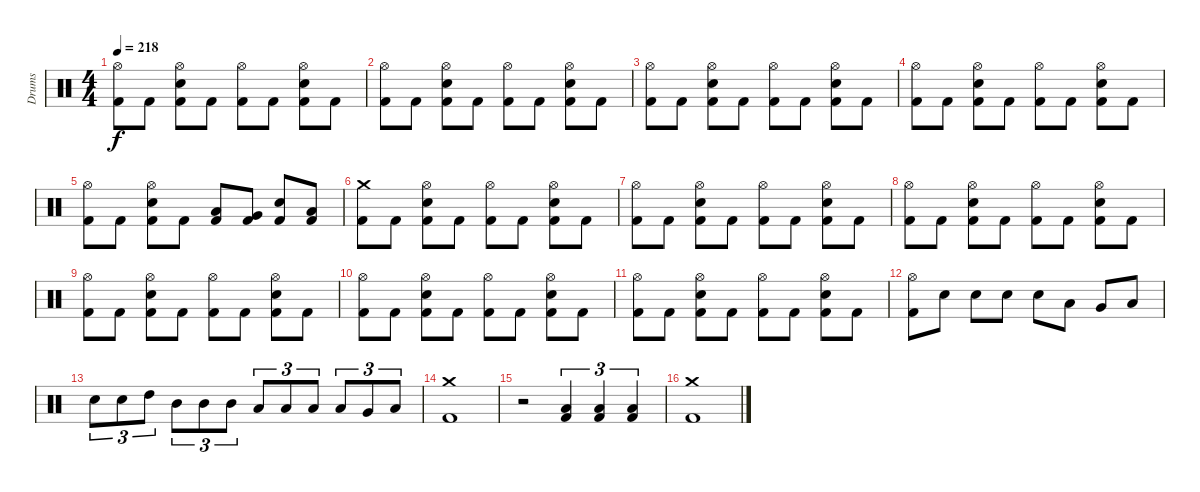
\track ("Drums" "Drums") {instrument percussion}
\staff {score}
\articulation defaults
\ts (4 4)
\tempo 218
\clef neutral
\ks c
("Hi-Hat (open)" "Kick (hit) 2").8{dy f} "Kick (hit) 2".8 ("Hi-Hat (open)" "Snare (hit) 2" "Kick (hit) 2").8 "Kick (hit) 2".8 ("Hi-Hat (open)" "Kick (hit) 2").8 "Kick (hit) 2".8 ("Hi-Hat (open)" "Snare (hit) 2" "Kick (hit) 2").8 "Kick (hit) 2".8 |
("Hi-Hat (open)" "Kick (hit) 2").8 "Kick (hit) 2".8 ("Hi-Hat (open)" "Snare (hit) 2" "Kick (hit) 2").8 "Kick (hit) 2".8 ("Hi-Hat (open)" "Kick (hit) 2").8 "Kick (hit) 2".8 ("Hi-Hat (open)" "Snare (hit) 2" "Kick (hit) 2").8 "Kick (hit) 2".8 |
("Hi-Hat (open)" "Kick (hit) 2").8 "Kick (hit) 2".8 ("Hi-Hat (open)" "Snare (hit) 2" "Kick (hit) 2").8 "Kick (hit) 2".8 ("Hi-Hat (open)" "Kick (hit) 2").8 "Kick (hit) 2".8 ("Hi-Hat (open)" "Snare (hit) 2" "Kick (hit) 2").8 "Kick (hit) 2".8 |
("Hi-Hat (open)" "Kick (hit) 2").8 "Kick (hit) 2".8 ("Hi-Hat (open)" "Snare (hit) 2" "Kick (hit) 2").8 "Kick (hit) 2".8 ("Hi-Hat (open)" "Kick (hit) 2").8 "Kick (hit) 2".8 ("Hi-Hat (open)" "Snare (hit) 2" "Kick (hit) 2").8 "Kick (hit) 2".8 |
("Hi-Hat (open)" "Kick (hit) 2").8 "Kick (hit) 2".8 ("Hi-Hat (open)" "Snare (hit) 2" "Kick (hit) 2").8 "Kick (hit) 2".8 ("Low Tom (hit)" "Kick (hit) 2").8 ("Very Low Tom (hit)" "Kick (hit) 2").8 ("Snare (hit) 2" "Kick (hit) 2").8 ("Low Floor Tom (hit)" "Kick (hit) 2").8 |
("Crash medium (hit)" "Kick (hit) 2").8 "Kick (hit) 2".8 ("Hi-Hat (open)" "Snare (hit) 2" "Kick (hit) 2").8 "Kick (hit) 2".8 ("Hi-Hat (open)" "Kick (hit) 2").8 "Kick (hit) 2".8 ("Hi-Hat (open)" "Snare (hit) 2" "Kick (hit) 2").8 "Kick (hit) 2".8 |
("Hi-Hat (open)" "Kick (hit) 2").8 "Kick (hit) 2".8 ("Hi-Hat (open)" "Snare (hit) 2" "Kick (hit) 2").8 "Kick (hit) 2".8 ("Hi-Hat (open)" "Kick (hit) 2").8 "Kick (hit) 2".8 ("Hi-Hat (open)" "Snare (hit) 2" "Kick (hit) 2").8 "Kick (hit) 2".8 |
("Hi-Hat (open)" "Kick (hit) 2").8 "Kick (hit) 2".8 ("Hi-Hat (open)" "Snare (hit) 2" "Kick (hit) 2").8 "Kick (hit) 2".8 ("Hi-Hat (open)" "Kick (hit) 2").8 "Kick (hit) 2".8 ("Hi-Hat (open)" "Snare (hit) 2" "Kick (hit) 2").8 "Kick (hit) 2".8 |
("Hi-Hat (open)" "Kick (hit) 2").8 "Kick (hit) 2".8 ("Hi-Hat (open)" "Snare (hit) 2" "Kick (hit) 2").8 "Kick (hit) 2".8 ("Hi-Hat (open)" "Kick (hit) 2").8 "Kick (hit) 2".8 ("Hi-Hat (open)" "Snare (hit) 2" "Kick (hit) 2").8 "Kick (hit) 2".8 |
("Hi-Hat (open)" "Kick (hit) 2").8 "Kick (hit) 2".8 ("Hi-Hat (open)" "Snare (hit) 2" "Kick (hit) 2").8 "Kick (hit) 2".8 ("Hi-Hat (open)" "Kick (hit) 2").8 "Kick (hit) 2".8 ("Hi-Hat (open)" "Snare (hit) 2" "Kick (hit) 2").8 "Kick (hit) 2".8 |
("Hi-Hat (open)" "Kick (hit) 2").8 "Kick (hit) 2".8 ("Hi-Hat (open)" "Snare (hit) 2" "Kick (hit) 2").8 "Kick (hit) 2".8 ("Hi-Hat (open)" "Kick (hit) 2").8 "Kick (hit) 2".8 ("Hi-Hat (open)" "Snare (hit) 2" "Kick (hit) 2").8 "Kick (hit) 2".8 |
("Hi-Hat (open)" "Kick (hit) 2").8 "Snare (hit) 2".8 "Snare (hit) 2".8 "Snare (hit) 2".8 "Snare (hit) 2".8 "Low Tom (hit)".8 "Very Low Tom (hit)".8 "Low Floor Tom (hit)".8 |
"Snare (hit) 2".8{tu (3 2)} "Snare (hit) 2".8{tu (3 2)} "High Tom (hit)".8{tu (3 2)} "Mid Tom (hit)".8{tu (3 2)} "Mid Tom (hit)".8{tu (3 2)} "Mid Tom (hit)".8{tu (3 2)} "Low Tom (hit)".8{tu (3 2)} "Low Tom (hit)".8{tu (3 2)} "Low Tom (hit)".8{tu (3 2)} "Low Tom (hit)".8{tu (3 2)} "Very Low Tom (hit)".8{tu (3 2)} "Low Floor Tom (hit)".8{tu (3 2)} |
("Crash medium (hit)" "Kick (hit) 2").1 |
r.2 ("Low Floor Tom (hit)" "Kick (hit) 2").4{tu (3 2)} ("Low Floor Tom (hit)" "Kick (hit) 2").4{tu (3 2)} ("Low Floor Tom (hit)" "Kick (hit) 2").4{tu (3 2)} |
("Crash medium (hit)" "Kick (hit) 2").1
